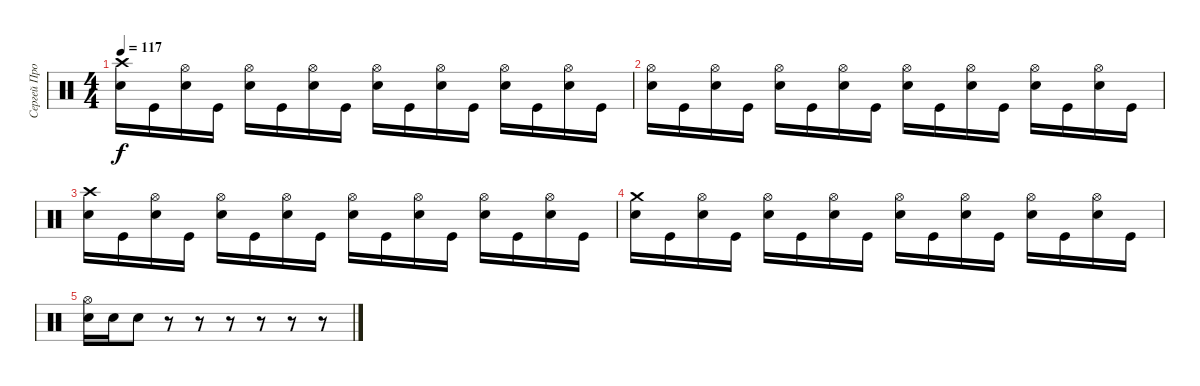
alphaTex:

\track ("Сергей Прокофьев" "Сергей Про") {instrument percussion}
\staff {score}
\articulation defaults
\ts (4 4)
\tempo 117
\clef neutral
\ks c
("Crash high (hit)" "Electric Snare (hit)").16{dy f} "Kick (hit)".16 ("Hi-Hat (open)" "Electric Snare (hit)").16 "Kick (hit)".16 ("Hi-Hat (open)" "Electric Snare (hit)").16 "Kick (hit)".16 ("Hi-Hat (open)" "Electric Snare (hit)").16 "Kick (hit)".16 ("Hi-Hat (open)" "Electric Snare (hit)").16 "Kick (hit)".16 ("Hi-Hat (open)" "Electric Snare (hit)").16 "Kick (hit)".16 ("Hi-Hat (open)" "Electric Snare (hit)").16 "Kick (hit)".16 ("Hi-Hat (open)" "Electric Snare (hit)").16 "Kick (hit)".16 |
("Hi-Hat (open)" "Electric Snare (hit)").16 "Kick (hit)".16 ("Hi-Hat (open)" "Electric Snare (hit)").16 "Kick (hit)".16 ("Hi-Hat (open)" "Electric Snare (hit)").16 "Kick (hit)".16 ("Hi-Hat (open)" "Electric Snare (hit)").16 "Kick (hit)".16 ("Hi-Hat (open)" "Electric Snare (hit)").16 "Kick (hit)".16 ("Hi-Hat (open)" "Electric Snare (hit)").16 "Kick (hit)".16 ("Hi-Hat (open)" "Electric Snare (hit)").16 "Kick (hit)".16 ("Hi-Hat (open)" "Electric Snare (hit)").16 "Kick (hit)".16 |
("Crash high (hit)" "Electric Snare (hit)").16 "Kick (hit)".16 ("Hi-Hat (open)" "Electric Snare (hit)").16 "Kick (hit)".16 ("Hi-Hat (open)" "Electric Snare (hit)").16 "Kick (hit)".16 ("Hi-Hat (open)" "Electric Snare (hit)").16 "Kick (hit)".16 ("Hi-Hat (open)" "Electric Snare (hit)").16 "Kick (hit)".16 ("Hi-Hat (open)" "Electric Snare (hit)").16 "Kick (hit)".16 ("Hi-Hat (open)" "Electric Snare (hit)").16 "Kick (hit)".16 ("Hi-Hat (open)" "Electric Snare (hit)").16 "Kick (hit)".16 |
("Crash medium (hit)" "Electric Snare (hit)").16 "Kick (hit)".16 ("Hi-Hat (open)" "Electric Snare (hit)").16 "Kick (hit)".16 ("Hi-Hat (open)" "Electric Snare (hit)").16 "Kick (hit)".16 ("Hi-Hat (open)" "Electric Snare (hit)").16 "Kick (hit)".16 ("Hi-Hat (open)" "Electric Snare (hit)").16 "Kick (hit)".16 ("Hi-Hat (open)" "Electric Snare (hit)").16 "Kick (hit)".16 ("Hi-Hat (open)" "Electric Snare (hit)").16 "Kick (hit)".16 ("Hi-Hat (open)" "Electric Snare (hit)").16 "Kick (hit)".16 |
("Hi-Hat (open)" "Electric Snare (hit)").16 "Electric Snare (hit)".16 "Electric Snare (hit)".8 r.8 r.8 r.8 r.8 r.8 r.8
